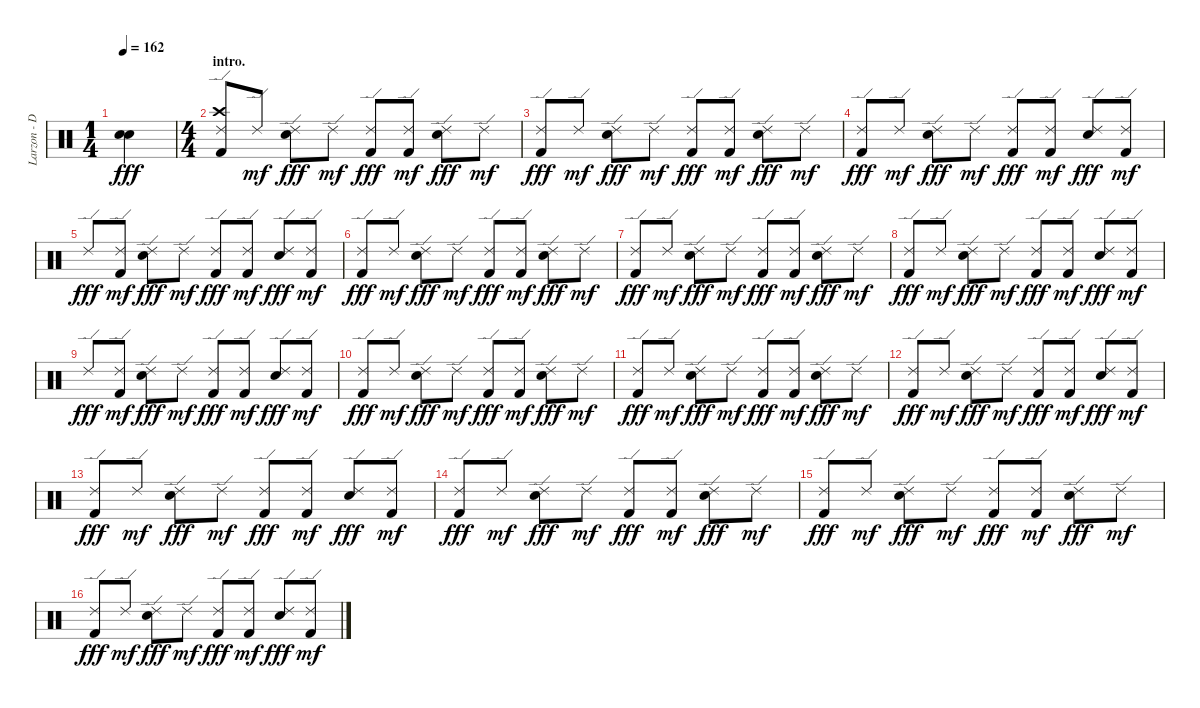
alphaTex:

\track ("Larzon - Drums" "Larzon - D") {instrument percussion}
\staff {score}
\articulation defaults
\ts (1 4)
\tempo 162
\clef neutral
\ks c
("Electric Snare (hit)" "Electric Snare (hit)").4{dy fff} |
\ts (4 4)
\section ("" "intro.")
("Kick (hit) 2" "Crash high (hit)" "Ride (edge) 2").8 "Ride (edge) 2".8{dy mf} ("Electric Snare (hit)" "Ride (edge) 2").8{dy fff} "Ride (edge) 2".8{dy mf} ("Kick (hit) 2" "Ride (edge) 2").8{dy fff} ("Kick (hit) 2" "Ride (edge) 2").8{dy mf} ("Electric Snare (hit)" "Ride (edge) 2").8{dy fff} "Ride (edge) 2".8{dy mf} |
("Kick (hit) 2" "Ride (edge) 2").8{dy fff} "Ride (edge) 2".8{dy mf} ("Electric Snare (hit)" "Ride (edge) 2").8{dy fff} "Ride (edge) 2".8{dy mf} ("Kick (hit) 2" "Ride (edge) 2").8{dy fff} ("Kick (hit) 2" "Ride (edge) 2").8{dy mf} ("Electric Snare (hit)" "Ride (edge) 2").8{dy fff} "Ride (edge) 2".8{dy mf} |
("Kick (hit) 2" "Ride (edge) 2").8{dy fff} "Ride (edge) 2".8{dy mf} ("Electric Snare (hit)" "Ride (edge) 2").8{dy fff} "Ride (edge) 2".8{dy mf} ("Kick (hit) 2" "Ride (edge) 2").8{dy fff} ("Kick (hit) 2" "Ride (edge) 2").8{dy mf} ("Electric Snare (hit)" "Ride (edge) 2").8{dy fff} ("Kick (hit) 2" "Ride (edge) 2").8{dy mf} |
"Ride (edge) 2".8{dy fff} ("Kick (hit) 2" "Ride (edge) 2").8{dy mf} ("Electric Snare (hit)" "Ride (edge) 2").8{dy fff} "Ride (edge) 2".8{dy mf} ("Kick (hit) 2" "Ride (edge) 2").8{dy fff} ("Kick (hit) 2" "Ride (edge) 2").8{dy mf} ("Electric Snare (hit)" "Ride (edge) 2").8{dy fff} ("Kick (hit) 2" "Ride (edge) 2").8{dy mf} |
("Kick (hit) 2" "Ride (edge) 2").8{dy fff} "Ride (edge) 2".8{dy mf} ("Electric Snare (hit)" "Ride (edge) 2").8{dy fff} "Ride (edge) 2".8{dy mf} ("Kick (hit) 2" "Ride (edge) 2").8{dy fff} ("Kick (hit) 2" "Ride (edge) 2").8{dy mf} ("Electric Snare (hit)" "Ride (edge) 2").8{dy fff} "Ride (edge) 2".8{dy mf} |
("Kick (hit) 2" "Ride (edge) 2").8{dy fff} "Ride (edge) 2".8{dy mf} ("Electric Snare (hit)" "Ride (edge) 2").8{dy fff} "Ride (edge) 2".8{dy mf} ("Kick (hit) 2" "Ride (edge) 2").8{dy fff} ("Kick (hit) 2" "Ride (edge) 2").8{dy mf} ("Electric Snare (hit)" "Ride (edge) 2").8{dy fff} "Ride (edge) 2".8{dy mf} |
("Kick (hit) 2" "Ride (edge) 2").8{dy fff} "Ride (edge) 2".8{dy mf} ("Electric Snare (hit)" "Ride (edge) 2").8{dy fff} "Ride (edge) 2".8{dy mf} ("Kick (hit) 2" "Ride (edge) 2").8{dy fff} ("Kick (hit) 2" "Ride (edge) 2").8{dy mf} ("Electric Snare (hit)" "Ride (edge) 2").8{dy fff} ("Kick (hit) 2" "Ride (edge) 2").8{dy mf} |
"Ride (edge) 2".8{dy fff} ("Kick (hit) 2" "Ride (edge) 2").8{dy mf} ("Electric Snare (hit)" "Ride (edge) 2").8{dy fff} "Ride (edge) 2".8{dy mf} ("Kick (hit) 2" "Ride (edge) 2").8{dy fff} ("Kick (hit) 2" "Ride (edge) 2").8{dy mf} ("Electric Snare (hit)" "Ride (edge) 2").8{dy fff} ("Kick (hit) 2" "Ride (edge) 2").8{dy mf} |
("Kick (hit) 2" "Ride (edge) 2").8{dy fff} "Ride (edge) 2".8{dy mf} ("Electric Snare (hit)" "Ride (edge) 2").8{dy fff} "Ride (edge) 2".8{dy mf} ("Kick (hit) 2" "Ride (edge) 2").8{dy fff} ("Kick (hit) 2" "Ride (edge) 2").8{dy mf} ("Electric Snare (hit)" "Ride (edge) 2").8{dy fff} "Ride (edge) 2".8{dy mf} |
("Kick (hit) 2" "Ride (edge) 2").8{dy fff} "Ride (edge) 2".8{dy mf} ("Electric Snare (hit)" "Ride (edge) 2").8{dy fff} "Ride (edge) 2".8{dy mf} ("Kick (hit) 2" "Ride (edge) 2").8{dy fff} ("Kick (hit) 2" "Ride (edge) 2").8{dy mf} ("Electric Snare (hit)" "Ride (edge) 2").8{dy fff} "Ride (edge) 2".8{dy mf} |
("Kick (hit) 2" "Ride (edge) 2").8{dy fff} "Ride (edge) 2".8{dy mf} ("Electric Snare (hit)" "Ride (edge) 2").8{dy fff} "Ride (edge) 2".8{dy mf} ("Kick (hit) 2" "Ride (edge) 2").8{dy fff} ("Kick (hit) 2" "Ride (edge) 2").8{dy mf} ("Electric Snare (hit)" "Ride (edge) 2").8{dy fff} ("Kick (hit) 2" "Ride (edge) 2").8{dy mf} |
("Kick (hit) 2" "Ride (edge) 2").8{dy fff} "Ride (edge) 2".8{dy mf} ("Electric Snare (hit)" "Ride (edge) 2").8{dy fff} "Ride (edge) 2".8{dy mf} ("Kick (hit) 2" "Ride (edge) 2").8{dy fff} ("Kick (hit) 2" "Ride (edge) 2").8{dy mf} ("Electric Snare (hit)" "Ride (edge) 2").8{dy fff} ("Kick (hit) 2" "Ride (edge) 2").8{dy mf} |
("Kick (hit) 2" "Ride (edge) 2").8{dy fff} "Ride (edge) 2".8{dy mf} ("Electric Snare (hit)" "Ride (edge) 2").8{dy fff} "Ride (edge) 2".8{dy mf} ("Kick (hit) 2" "Ride (edge) 2").8{dy fff} ("Kick (hit) 2" "Ride (edge) 2").8{dy mf} ("Electric Snare (hit)" "Ride (edge) 2").8{dy fff} "Ride (edge) 2".8{dy mf} |
("Kick (hit) 2" "Ride (edge) 2").8{dy fff} "Ride (edge) 2".8{dy mf} ("Electric Snare (hit)" "Ride (edge) 2").8{dy fff} "Ride (edge) 2".8{dy mf} ("Kick (hit) 2" "Ride (edge) 2").8{dy fff} ("Kick (hit) 2" "Ride (edge) 2").8{dy mf} ("Electric Snare (hit)" "Ride (edge) 2").8{dy fff} "Ride (edge) 2".8{dy mf} |
("Kick (hit) 2" "Ride (edge) 2").8{dy fff} "Ride (edge) 2".8{dy mf} ("Electric Snare (hit)" "Ride (edge) 2").8{dy fff} "Ride (edge) 2".8{dy mf} ("Kick (hit) 2" "Ride (edge) 2").8{dy fff} ("Kick (hit) 2" "Ride (edge) 2").8{dy mf} ("Electric Snare (hit)" "Ride (edge) 2").8{dy fff} ("Kick (hit) 2" "Ride (edge) 2").8{dy mf}
